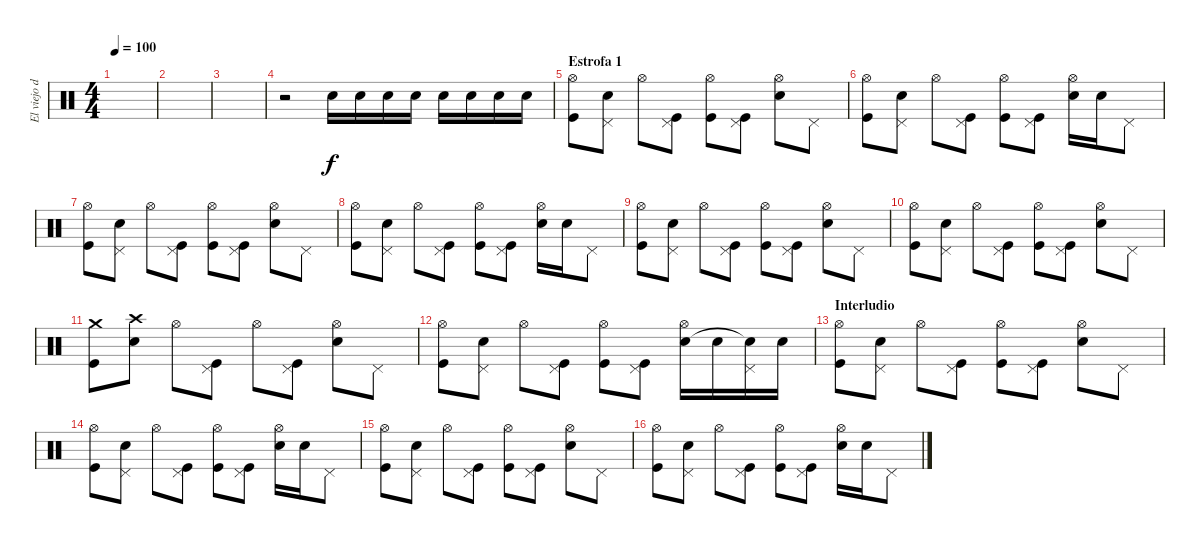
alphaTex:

\track ("El viejo del baston" "El viejo d") {instrument percussion}
\staff {score}
\articulation defaults
\ts (4 4)
\tempo 100
\clef neutral
\ks c
|
|
|
r.2{volume 1} "Snare (hit) 2".16{volume 13} "Snare (hit) 2".16 "Snare (hit) 2".16 "Snare (hit) 2".16 "Snare (hit) 2".16 "Snare (hit) 2".16 "Snare (hit) 2".16 "Snare (hit) 2".16 |
\section ("" "Estrofa 1")
("Hi-Hat (open)" "Kick (hit)").8 ("Pedal Hi-Hat (hit)" "Snare (hit) 2").8 "Hi-Hat (open)".8 ("Pedal Hi-Hat (hit)" "Kick (hit)").8 ("Hi-Hat (open)" "Kick (hit)").8 ("Pedal Hi-Hat (hit)" "Kick (hit)").8 ("Hi-Hat (open)" "Snare (hit) 2").8 "Pedal Hi-Hat (hit)".8 |
("Hi-Hat (open)" "Kick (hit)").8 ("Pedal Hi-Hat (hit)" "Snare (hit) 2").8 "Hi-Hat (open)".8 ("Pedal Hi-Hat (hit)" "Kick (hit)").8 ("Hi-Hat (open)" "Kick (hit)").8 ("Pedal Hi-Hat (hit)" "Kick (hit)").8 ("Hi-Hat (open)" "Snare (hit) 2").16 "Snare (hit) 2".16 "Pedal Hi-Hat (hit)".8 |
("Hi-Hat (open)" "Kick (hit)").8 ("Pedal Hi-Hat (hit)" "Snare (hit) 2").8 "Hi-Hat (open)".8 ("Pedal Hi-Hat (hit)" "Kick (hit)").8 ("Hi-Hat (open)" "Kick (hit)").8 ("Pedal Hi-Hat (hit)" "Kick (hit)").8 ("Hi-Hat (open)" "Snare (hit) 2").8 "Pedal Hi-Hat (hit)".8 |
("Hi-Hat (open)" "Kick (hit)").8 ("Pedal Hi-Hat (hit)" "Snare (hit) 2").8 "Hi-Hat (open)".8 ("Pedal Hi-Hat (hit)" "Kick (hit)").8 ("Hi-Hat (open)" "Kick (hit)").8 ("Pedal Hi-Hat (hit)" "Kick (hit)").8 ("Hi-Hat (open)" "Snare (hit) 2").16 "Snare (hit) 2".16 "Pedal Hi-Hat (hit)".8 |
("Hi-Hat (open)" "Kick (hit)").8 ("Pedal Hi-Hat (hit)" "Snare (hit) 2").8 "Hi-Hat (open)".8 ("Pedal Hi-Hat (hit)" "Kick (hit)").8 ("Hi-Hat (open)" "Kick (hit)").8 ("Pedal Hi-Hat (hit)" "Kick (hit)").8 ("Hi-Hat (open)" "Snare (hit) 2").8 "Pedal Hi-Hat (hit)".8 |
("Hi-Hat (open)" "Kick (hit)").8 ("Pedal Hi-Hat (hit)" "Snare (hit) 2").8 "Hi-Hat (open)".8 ("Pedal Hi-Hat (hit)" "Kick (hit)").8 ("Hi-Hat (open)" "Kick (hit)").8 ("Pedal Hi-Hat (hit)" "Kick (hit)").8 ("Hi-Hat (open)" "Snare (hit) 2").8 "Pedal Hi-Hat (hit)".8 |
("Crash medium (hit)" "Kick (hit)").8 ("Crash high (hit)" "Snare (hit) 2").8 "Hi-Hat (open)".8 ("Pedal Hi-Hat (hit)" "Kick (hit)").8 "Hi-Hat (open)".8 ("Pedal Hi-Hat (hit)" "Kick (hit)").8 ("Hi-Hat (open)" "Snare (hit) 2").8 "Pedal Hi-Hat (hit)".8 |
("Hi-Hat (open)" "Kick (hit)").8 ("Pedal Hi-Hat (hit)" "Snare (hit) 2").8 "Hi-Hat (open)".8 ("Pedal Hi-Hat (hit)" "Kick (hit)").8 ("Hi-Hat (open)" "Kick (hit)").8 ("Pedal Hi-Hat (hit)" "Kick (hit)").8 ("Hi-Hat (open)" "Snare (hit) 2").16 "Snare (hit) 2".16 ("Pedal Hi-Hat (hit)" "Snare (hit) 2"{t}).16 "Snare (hit) 2".16 |
\section ("" "Interludio")
("Hi-Hat (open)" "Kick (hit)").8 ("Pedal Hi-Hat (hit)" "Snare (hit) 2").8 "Hi-Hat (open)".8 ("Pedal Hi-Hat (hit)" "Kick (hit)").8 ("Hi-Hat (open)" "Kick (hit)").8 ("Pedal Hi-Hat (hit)" "Kick (hit)").8 ("Hi-Hat (open)" "Snare (hit) 2").8 "Pedal Hi-Hat (hit)".8 |
("Hi-Hat (open)" "Kick (hit)").8 ("Pedal Hi-Hat (hit)" "Snare (hit) 2").8 "Hi-Hat (open)".8 ("Pedal Hi-Hat (hit)" "Kick (hit)").8 ("Hi-Hat (open)" "Kick (hit)").8 ("Pedal Hi-Hat (hit)" "Kick (hit)").8 ("Hi-Hat (open)" "Snare (hit) 2").16 "Snare (hit) 2".16 "Pedal Hi-Hat (hit)".8 |
("Hi-Hat (open)" "Kick (hit)").8 ("Pedal Hi-Hat (hit)" "Snare (hit) 2").8 "Hi-Hat (open)".8 ("Pedal Hi-Hat (hit)" "Kick (hit)").8 ("Hi-Hat (open)" "Kick (hit)").8 ("Pedal Hi-Hat (hit)" "Kick (hit)").8 ("Hi-Hat (open)" "Snare (hit) 2").8 "Pedal Hi-Hat (hit)".8 |
("Hi-Hat (open)" "Kick (hit)").8 ("Pedal Hi-Hat (hit)" "Snare (hit) 2").8 "Hi-Hat (open)".8 ("Pedal Hi-Hat (hit)" "Kick (hit)").8 ("Hi-Hat (open)" "Kick (hit)").8 ("Pedal Hi-Hat (hit)" "Kick (hit)").8 ("Hi-Hat (open)" "Snare (hit) 2").16 "Snare (hit) 2".16 "Pedal Hi-Hat (hit)".8
